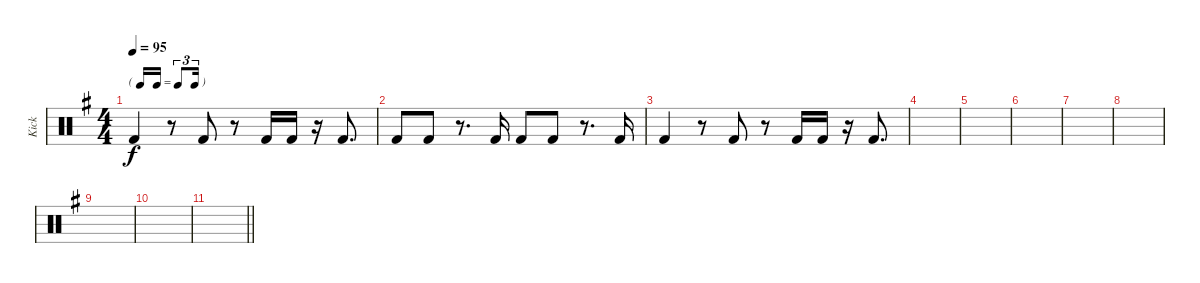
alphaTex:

\track ("Kick" "Kick") {instrument percussion}
\staff {score}
\articulation defaults
\ts (4 4)
\tf triplet16th
\tempo 95
\clef neutral
\ks eminor "Kick (hit) 2".4{dy f}
r.8 "Kick (hit) 2".8 r.8 "Kick (hit) 2".16 "Kick (hit) 2".16 r.16 "Kick (hit) 2".8{d} |
"Kick (hit) 2".8 "Kick (hit) 2".8 r.8{d} "Kick (hit) 2".16 "Kick (hit) 2".8 "Kick (hit) 2".8 r.8{d} "Kick (hit) 2".16 |
"Kick (hit) 2".4 r.8 "Kick (hit) 2".8 r.8 "Kick (hit) 2".16 "Kick (hit) 2".16 r.16 "Kick (hit) 2".8{d} |
|
|
|
|
|
|
|
\barLineRight lightlight
